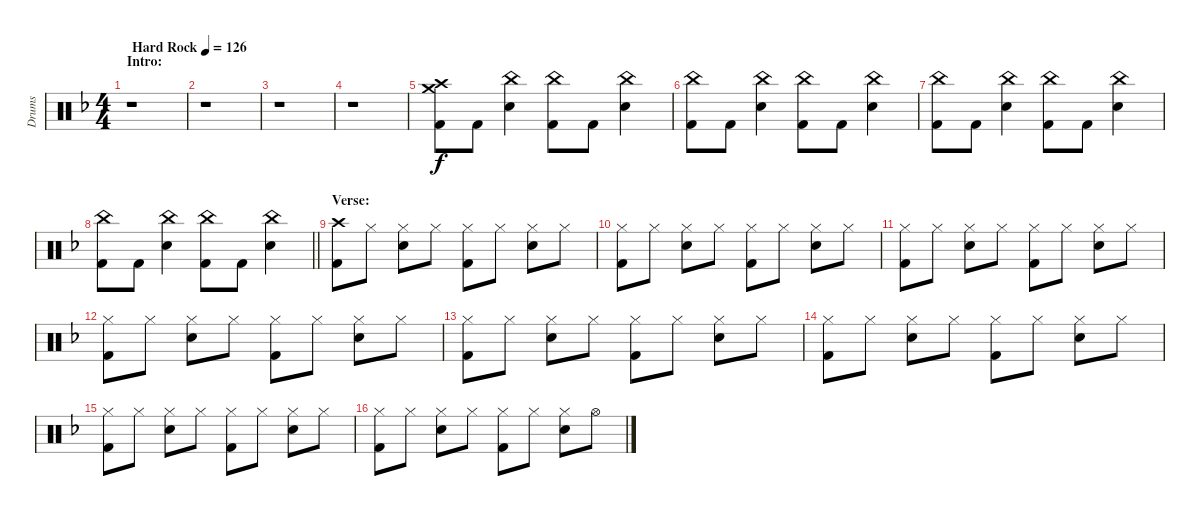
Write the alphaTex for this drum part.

\track ("Drums" "Drums") {instrument percussion}
\staff {score}
\articulation defaults
\ts (4 4)
\section ("" "Intro:")
\tempo (126 "Hard Rock")
\clef neutral
\ks dminor
r.1{dy f} |
r.1 |
r.1 |
r.1 |
("Crash high (hit)" "Crash medium (hit)" "Kick (hit) 2").8 "Kick (hit) 2".8 ("China (hit)" "Electric Snare (hit)").4 ("China (hit)" "Kick (hit) 2").8 "Kick (hit) 2".8 ("China (hit)" "Electric Snare (hit)").4 |
("China (hit)" "Kick (hit) 2").8 "Kick (hit) 2".8 ("China (hit)" "Electric Snare (hit)").4 ("China (hit)" "Kick (hit) 2").8 "Kick (hit) 2".8 ("China (hit)" "Electric Snare (hit)").4 |
("China (hit)" "Kick (hit) 2").8 "Kick (hit) 2".8 ("China (hit)" "Electric Snare (hit)").4 ("China (hit)" "Kick (hit) 2").8 "Kick (hit) 2".8 ("China (hit)" "Electric Snare (hit)").4 |
\barLineRight lightlight
("China (hit)" "Kick (hit) 2").8 "Kick (hit) 2".8 ("China (hit)" "Electric Snare (hit)").4 ("China (hit)" "Kick (hit) 2").8 "Kick (hit) 2".8 ("China (hit)" "Electric Snare (hit)").4 |
\section ("" "Verse:")
("Crash high (hit)" "Kick (hit) 2").8 "Hi-Hat (closed)".8 ("Hi-Hat (closed)" "Electric Snare (hit)").8 "Hi-Hat (closed)".8 ("Hi-Hat (closed)" "Kick (hit) 2").8 "Hi-Hat (closed)".8 ("Hi-Hat (closed)" "Electric Snare (hit)").8 "Hi-Hat (closed)".8 |
("Hi-Hat (closed)" "Kick (hit) 2").8 "Hi-Hat (closed)".8 ("Hi-Hat (closed)" "Electric Snare (hit)").8 "Hi-Hat (closed)".8 ("Hi-Hat (closed)" "Kick (hit) 2").8 "Hi-Hat (closed)".8 ("Hi-Hat (closed)" "Electric Snare (hit)").8 "Hi-Hat (closed)".8 |
("Hi-Hat (closed)" "Kick (hit) 2").8 "Hi-Hat (closed)".8 ("Hi-Hat (closed)" "Electric Snare (hit)").8 "Hi-Hat (closed)".8 ("Hi-Hat (closed)" "Kick (hit) 2").8 "Hi-Hat (closed)".8 ("Hi-Hat (closed)" "Electric Snare (hit)").8 "Hi-Hat (closed)".8 |
("Hi-Hat (closed)" "Kick (hit) 2").8 "Hi-Hat (closed)".8 ("Hi-Hat (closed)" "Electric Snare (hit)").8 "Hi-Hat (closed)".8 ("Hi-Hat (closed)" "Kick (hit) 2").8 "Hi-Hat (closed)".8 ("Hi-Hat (closed)" "Electric Snare (hit)").8 "Hi-Hat (closed)".8 |
("Hi-Hat (closed)" "Kick (hit) 2").8 "Hi-Hat (closed)".8 ("Hi-Hat (closed)" "Electric Snare (hit)").8 "Hi-Hat (closed)".8 ("Hi-Hat (closed)" "Kick (hit) 2").8 "Hi-Hat (closed)".8 ("Hi-Hat (closed)" "Electric Snare (hit)").8 "Hi-Hat (closed)".8 |
("Hi-Hat (closed)" "Kick (hit) 2").8 "Hi-Hat (closed)".8 ("Hi-Hat (closed)" "Electric Snare (hit)").8 "Hi-Hat (closed)".8 ("Hi-Hat (closed)" "Kick (hit) 2").8 "Hi-Hat (closed)".8 ("Hi-Hat (closed)" "Electric Snare (hit)").8 "Hi-Hat (closed)".8 |
("Hi-Hat (closed)" "Kick (hit) 2").8 "Hi-Hat (closed)".8 ("Hi-Hat (closed)" "Electric Snare (hit)").8 "Hi-Hat (closed)".8 ("Hi-Hat (closed)" "Kick (hit) 2").8 "Hi-Hat (closed)".8 ("Hi-Hat (closed)" "Electric Snare (hit)").8 "Hi-Hat (closed)".8 |
("Hi-Hat (closed)" "Kick (hit) 2").8 "Hi-Hat (closed)".8 ("Hi-Hat (closed)" "Electric Snare (hit)").8 "Hi-Hat (closed)".8 ("Hi-Hat (closed)" "Kick (hit) 2").8 "Hi-Hat (closed)".8 ("Hi-Hat (closed)" "Electric Snare (hit)").8 "Hi-Hat (open)".8
